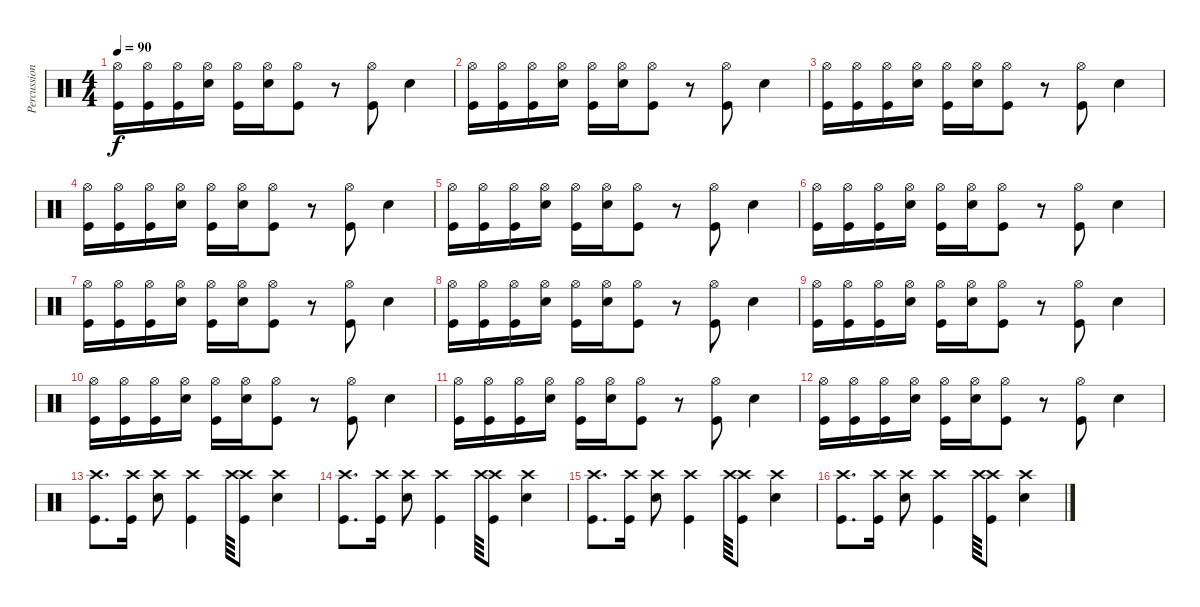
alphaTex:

\track ("Percussion courtesy of unknown user" "Percussion") {instrument percussion}
\staff {score}
\articulation defaults
\ts (4 4)
\tempo 90
\clef neutral
\ks c
("Hi-Hat (open)" "Kick (hit)").16{dy f} ("Hi-Hat (open)" "Kick (hit)").16 ("Hi-Hat (open)" "Kick (hit)").16 ("Hi-Hat (open)" "Snare (hit) 2").16 ("Hi-Hat (open)" "Kick (hit)").16 ("Hi-Hat (open)" "Snare (hit) 2").16 ("Hi-Hat (open)" "Kick (hit)").8 r.8 ("Hi-Hat (open)" "Kick (hit)").8 "Snare (hit) 2".4 |
("Hi-Hat (open)" "Kick (hit)").16 ("Hi-Hat (open)" "Kick (hit)").16 ("Hi-Hat (open)" "Kick (hit)").16 ("Hi-Hat (open)" "Snare (hit) 2").16 ("Hi-Hat (open)" "Kick (hit)").16 ("Hi-Hat (open)" "Snare (hit) 2").16 ("Hi-Hat (open)" "Kick (hit)").8 r.8 ("Hi-Hat (open)" "Kick (hit)").8 "Snare (hit) 2".4 |
("Hi-Hat (open)" "Kick (hit)").16 ("Hi-Hat (open)" "Kick (hit)").16 ("Hi-Hat (open)" "Kick (hit)").16 ("Hi-Hat (open)" "Snare (hit) 2").16 ("Hi-Hat (open)" "Kick (hit)").16 ("Hi-Hat (open)" "Snare (hit) 2").16 ("Hi-Hat (open)" "Kick (hit)").8 r.8 ("Hi-Hat (open)" "Kick (hit)").8 "Snare (hit) 2".4 |
("Hi-Hat (open)" "Kick (hit)").16 ("Hi-Hat (open)" "Kick (hit)").16 ("Hi-Hat (open)" "Kick (hit)").16 ("Hi-Hat (open)" "Snare (hit) 2").16 ("Hi-Hat (open)" "Kick (hit)").16 ("Hi-Hat (open)" "Snare (hit) 2").16 ("Hi-Hat (open)" "Kick (hit)").8 r.8 ("Hi-Hat (open)" "Kick (hit)").8 "Snare (hit) 2".4 |
("Hi-Hat (open)" "Kick (hit)").16 ("Hi-Hat (open)" "Kick (hit)").16 ("Hi-Hat (open)" "Kick (hit)").16 ("Hi-Hat (open)" "Snare (hit) 2").16 ("Hi-Hat (open)" "Kick (hit)").16 ("Hi-Hat (open)" "Snare (hit) 2").16 ("Hi-Hat (open)" "Kick (hit)").8 r.8 ("Hi-Hat (open)" "Kick (hit)").8 "Snare (hit) 2".4 |
("Hi-Hat (open)" "Kick (hit)").16 ("Hi-Hat (open)" "Kick (hit)").16 ("Hi-Hat (open)" "Kick (hit)").16 ("Hi-Hat (open)" "Snare (hit) 2").16 ("Hi-Hat (open)" "Kick (hit)").16 ("Hi-Hat (open)" "Snare (hit) 2").16 ("Hi-Hat (open)" "Kick (hit)").8 r.8 ("Hi-Hat (open)" "Kick (hit)").8 "Snare (hit) 2".4 |
("Hi-Hat (open)" "Kick (hit)").16 ("Hi-Hat (open)" "Kick (hit)").16 ("Hi-Hat (open)" "Kick (hit)").16 ("Hi-Hat (open)" "Snare (hit) 2").16 ("Hi-Hat (open)" "Kick (hit)").16 ("Hi-Hat (open)" "Snare (hit) 2").16 ("Hi-Hat (open)" "Kick (hit)").8 r.8 ("Hi-Hat (open)" "Kick (hit)").8 "Snare (hit) 2".4 |
("Hi-Hat (open)" "Kick (hit)").16 ("Hi-Hat (open)" "Kick (hit)").16 ("Hi-Hat (open)" "Kick (hit)").16 ("Hi-Hat (open)" "Snare (hit) 2").16 ("Hi-Hat (open)" "Kick (hit)").16 ("Hi-Hat (open)" "Snare (hit) 2").16 ("Hi-Hat (open)" "Kick (hit)").8 r.8 ("Hi-Hat (open)" "Kick (hit)").8 "Snare (hit) 2".4 |
("Hi-Hat (open)" "Kick (hit)").16 ("Hi-Hat (open)" "Kick (hit)").16 ("Hi-Hat (open)" "Kick (hit)").16 ("Hi-Hat (open)" "Snare (hit) 2").16 ("Hi-Hat (open)" "Kick (hit)").16 ("Hi-Hat (open)" "Snare (hit) 2").16 ("Hi-Hat (open)" "Kick (hit)").8 r.8 ("Hi-Hat (open)" "Kick (hit)").8 "Snare (hit) 2".4 |
("Hi-Hat (open)" "Kick (hit)").16 ("Hi-Hat (open)" "Kick (hit)").16 ("Hi-Hat (open)" "Kick (hit)").16 ("Hi-Hat (open)" "Snare (hit) 2").16 ("Hi-Hat (open)" "Kick (hit)").16 ("Hi-Hat (open)" "Snare (hit) 2").16 ("Hi-Hat (open)" "Kick (hit)").8 r.8 ("Hi-Hat (open)" "Kick (hit)").8 "Snare (hit) 2".4 |
("Hi-Hat (open)" "Kick (hit)").16 ("Hi-Hat (open)" "Kick (hit)").16 ("Hi-Hat (open)" "Kick (hit)").16 ("Hi-Hat (open)" "Snare (hit) 2").16 ("Hi-Hat (open)" "Kick (hit)").16 ("Hi-Hat (open)" "Snare (hit) 2").16 ("Hi-Hat (open)" "Kick (hit)").8 r.8 ("Hi-Hat (open)" "Kick (hit)").8 "Snare (hit) 2".4 |
("Hi-Hat (open)" "Kick (hit)").16 ("Hi-Hat (open)" "Kick (hit)").16 ("Hi-Hat (open)" "Kick (hit)").16 ("Hi-Hat (open)" "Snare (hit) 2").16 ("Hi-Hat (open)" "Kick (hit)").16 ("Hi-Hat (open)" "Snare (hit) 2").16 ("Hi-Hat (open)" "Kick (hit)").8 r.8 ("Hi-Hat (open)" "Kick (hit)").8 "Snare (hit) 2".4 |
("Crash high (hit)" "Kick (hit)").8{d} ("Crash high (hit)" "Kick (hit)").16 ("Crash high (hit)" "Snare (hit) 2").8 ("Crash high (hit)" "Kick (hit)").4 "Crash high (hit)".64 ("Crash high (hit)" "Kick (hit)").8 ("Crash high (hit)" "Snare (hit) 2").4 |
("Crash high (hit)" "Kick (hit)").8{d} ("Crash high (hit)" "Kick (hit)").16 ("Crash high (hit)" "Snare (hit) 2").8 ("Crash high (hit)" "Kick (hit)").4 "Crash high (hit)".64 ("Crash high (hit)" "Kick (hit)").8 ("Crash high (hit)" "Snare (hit) 2").4 |
("Crash high (hit)" "Kick (hit)").8{d} ("Crash high (hit)" "Kick (hit)").16 ("Crash high (hit)" "Snare (hit) 2").8 ("Crash high (hit)" "Kick (hit)").4 "Crash high (hit)".64 ("Crash high (hit)" "Kick (hit)").8 ("Crash high (hit)" "Snare (hit) 2").4 |
("Crash high (hit)" "Kick (hit)").8{d} ("Crash high (hit)" "Kick (hit)").16 ("Crash high (hit)" "Snare (hit) 2").8 ("Crash high (hit)" "Kick (hit)").4 "Crash high (hit)".64 ("Crash high (hit)" "Kick (hit)").8 ("Crash high (hit)" "Snare (hit) 2").4
